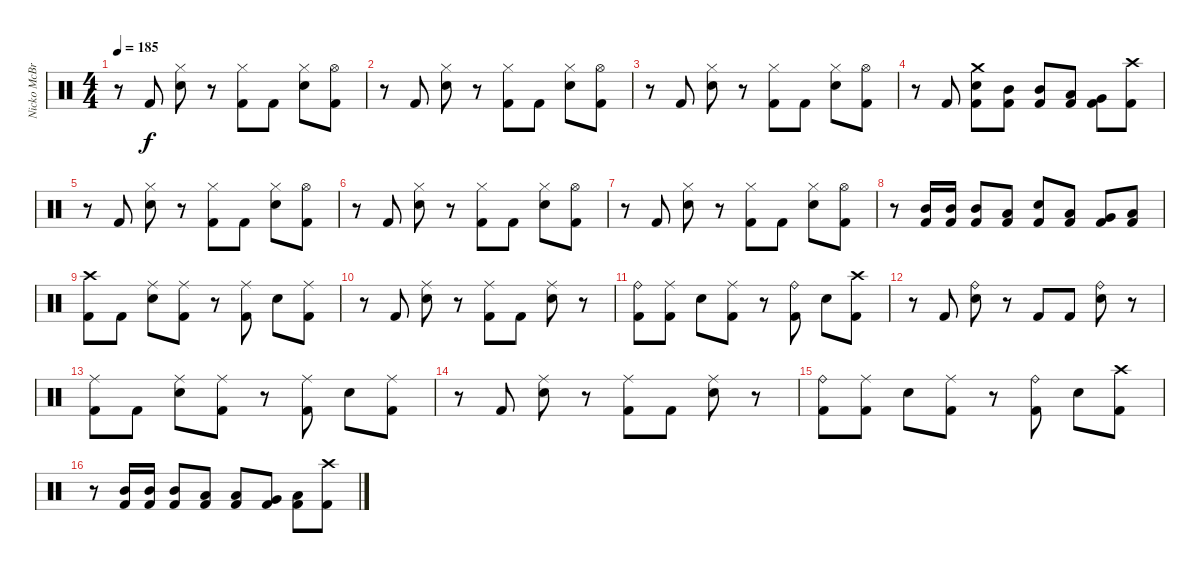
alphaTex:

\track ("Nicko McBrain" "Nicko McBr") {instrument percussion}
\staff {score}
\articulation defaults
\ts (4 4)
\tempo 185
\clef neutral
\ks c
r.8{dy f} "Kick (hit) 2".8 ("Hi-Hat (closed)" "Snare (hit) 2").8 r.8 ("Hi-Hat (closed)" "Kick (hit) 2").8 "Kick (hit) 2".8 ("Hi-Hat (closed)" "Snare (hit) 2").8 ("Hi-Hat (open)" "Kick (hit) 2").8 |
r.8 "Kick (hit) 2".8 ("Hi-Hat (closed)" "Snare (hit) 2").8 r.8 ("Hi-Hat (closed)" "Kick (hit) 2").8 "Kick (hit) 2".8 ("Hi-Hat (closed)" "Snare (hit) 2").8 ("Hi-Hat (open)" "Kick (hit) 2").8 |
r.8 "Kick (hit) 2".8 ("Hi-Hat (closed)" "Snare (hit) 2").8 r.8 ("Hi-Hat (closed)" "Kick (hit) 2").8 "Kick (hit) 2".8 ("Hi-Hat (closed)" "Snare (hit) 2").8 ("Hi-Hat (open)" "Kick (hit) 2").8 |
r.8 "Kick (hit) 2".8 ("Crash medium (hit)" "Snare (hit) 2" "Kick (hit) 2").8 ("Mid Tom (hit)" "Kick (hit) 2").8 ("Mid Tom (hit)" "Kick (hit) 2").8 ("Low Tom (hit)" "Kick (hit) 2").8 ("Very Low Tom (hit)" "Kick (hit) 2").8 ("Crash high (hit)" "Kick (hit) 2").8 |
r.8 "Kick (hit) 2".8 ("Hi-Hat (closed)" "Snare (hit) 2").8 r.8 ("Hi-Hat (closed)" "Kick (hit) 2").8 "Kick (hit) 2".8 ("Hi-Hat (closed)" "Snare (hit) 2").8 ("Hi-Hat (open)" "Kick (hit) 2").8 |
r.8 "Kick (hit) 2".8 ("Hi-Hat (closed)" "Snare (hit) 2").8 r.8 ("Hi-Hat (closed)" "Kick (hit) 2").8 "Kick (hit) 2".8 ("Hi-Hat (closed)" "Snare (hit) 2").8 ("Hi-Hat (open)" "Kick (hit) 2").8 |
r.8 "Kick (hit) 2".8 ("Hi-Hat (closed)" "Snare (hit) 2").8 r.8 ("Hi-Hat (closed)" "Kick (hit) 2").8 "Kick (hit) 2".8 ("Hi-Hat (closed)" "Snare (hit) 2").8 ("Hi-Hat (open)" "Kick (hit) 2").8 |
r.8 ("Mid Tom (hit)" "Kick (hit) 2").16 ("Mid Tom (hit)" "Kick (hit) 2").16 ("Mid Tom (hit)" "Kick (hit) 2").8 ("Low Tom (hit)" "Kick (hit) 2").8 ("Snare (hit) 2" "Kick (hit) 2").8 ("Low Tom (hit)" "Kick (hit) 2").8 ("Very Low Tom (hit)" "Kick (hit) 2").8 ("Low Floor Tom (hit)" "Kick (hit) 2").8 |
("Crash high (hit)" "Kick (hit) 2").8 "Kick (hit) 2".8 ("Ride (middle)" "Snare (hit) 2").8 ("Ride (middle)" "Kick (hit) 2").8 r.8 ("Ride (middle)" "Kick (hit) 2").8 "Snare (hit) 2".8 ("Ride (middle)" "Kick (hit) 2").8 |
r.8 "Kick (hit) 2".8 ("Ride (middle)" "Snare (hit) 2").8 r.8 ("Ride (middle)" "Kick (hit) 2").8 "Kick (hit) 2".8 ("Ride (middle)" "Snare (hit) 2").8 r.8 |
("Ride (bell)" "Kick (hit) 2").8 ("Ride (middle)" "Kick (hit) 2").8 "Snare (hit) 2".8 ("Ride (middle)" "Kick (hit) 2").8 r.8 ("Ride (bell)" "Kick (hit) 2").8 "Snare (hit) 2".8 ("Crash high (hit)" "Kick (hit) 2").8 |
r.8 "Kick (hit) 2".8 ("Ride (bell)" "Snare (hit) 2").8 r.8 "Kick (hit) 2".8 "Kick (hit) 2".8 ("Ride (bell)" "Snare (hit) 2").8 r.8 |
("Ride (middle)" "Kick (hit) 2").8 "Kick (hit) 2".8 ("Ride (middle)" "Snare (hit) 2").8 ("Ride (middle)" "Kick (hit) 2").8 r.8 ("Ride (middle)" "Kick (hit) 2").8 "Snare (hit) 2".8 ("Ride (middle)" "Kick (hit) 2").8 |
r.8 "Kick (hit) 2".8 ("Ride (middle)" "Snare (hit) 2").8 r.8 ("Ride (middle)" "Kick (hit) 2").8 "Kick (hit) 2".8 ("Ride (middle)" "Snare (hit) 2").8 r.8 |
("Ride (bell)" "Kick (hit) 2").8 ("Ride (middle)" "Kick (hit) 2").8 "Snare (hit) 2".8 ("Ride (middle)" "Kick (hit) 2").8 r.8 ("Ride (bell)" "Kick (hit) 2").8 "Snare (hit) 2".8 ("Crash high (hit)" "Kick (hit) 2").8 |
r.8 ("Mid Tom (hit)" "Kick (hit) 2").16 ("Mid Tom (hit)" "Kick (hit) 2").16 ("Mid Tom (hit)" "Kick (hit) 2").8 ("Low Tom (hit)" "Kick (hit) 2").8 ("Low Tom (hit)" "Kick (hit) 2").8 ("Very Low Tom (hit)" "Kick (hit) 2").8 ("Low Floor Tom (hit)" "Kick (hit) 2").8 ("Crash high (hit)" "Kick (hit) 2").8
